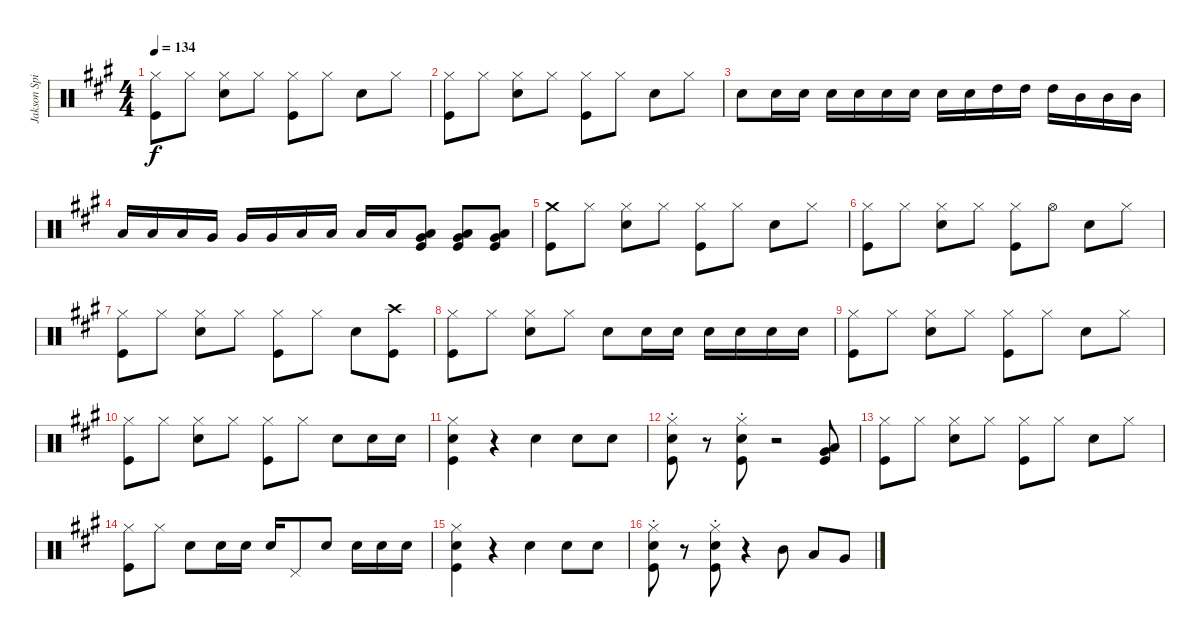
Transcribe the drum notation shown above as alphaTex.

\track ("Jakson Spires Drums" "Jakson Spi") {instrument percussion}
\staff {score}
\articulation defaults
\ts (4 4)
\tempo 134
\clef neutral
\ks a
("Hi-Hat (closed)" "Kick (hit)").8{dy f} "Hi-Hat (closed)".8 ("Hi-Hat (closed)" "Snare (hit) 2").8 "Hi-Hat (closed)".8 ("Hi-Hat (closed)" "Kick (hit)").8 "Hi-Hat (closed)".8 "Snare (hit) 2".8 "Hi-Hat (closed)".8 |
("Hi-Hat (closed)" "Kick (hit)").8 "Hi-Hat (closed)".8 ("Hi-Hat (closed)" "Snare (hit) 2").8 "Hi-Hat (closed)".8 ("Hi-Hat (closed)" "Kick (hit)").8 "Hi-Hat (closed)".8 "Snare (hit) 2".8 "Hi-Hat (closed)".8 |
"Snare (hit) 2".8 "Snare (hit) 2".16 "Snare (hit) 2".16 "Snare (hit) 2".16 "Snare (hit) 2".16 "Snare (hit) 2".16 "Snare (hit) 2".16 "Snare (hit) 2".16 "Snare (hit) 2".16 "High Tom (hit)".16 "High Tom (hit)".16 "High Tom (hit)".16 "Mid Tom (hit)".16 "Mid Tom (hit)".16 "Mid Tom (hit)".16 |
"Low Tom (hit)".16 "Low Tom (hit)".16 "Low Tom (hit)".16 "Very Low Tom (hit)".16 "Very Low Tom (hit)".16 "Very Low Tom (hit)".16 "Low Floor Tom (hit)".16 "Low Floor Tom (hit)".16 "Low Floor Tom (hit)".16 "Low Floor Tom (hit)".16 ("Low Tom (hit)" "Very Low Tom (hit)" "Kick (hit)").8 ("Low Tom (hit)" "Very Low Tom (hit)" "Kick (hit)").8 ("Low Tom (hit)" "Very Low Tom (hit)" "Kick (hit)").8 |
("Crash medium (hit)" "Kick (hit)").8 "Hi-Hat (closed)".8 ("Hi-Hat (closed)" "Snare (hit) 2").8 "Hi-Hat (closed)".8 ("Hi-Hat (closed)" "Kick (hit)").8 "Hi-Hat (closed)".8 "Snare (hit) 2".8 "Hi-Hat (closed)".8 |
("Hi-Hat (closed)" "Kick (hit)").8 "Hi-Hat (closed)".8 ("Hi-Hat (closed)" "Snare (hit) 2").8 "Hi-Hat (closed)".8 ("Hi-Hat (closed)" "Kick (hit)").8 "Hi-Hat (open)".8 "Snare (hit) 2".8 "Hi-Hat (closed)".8 |
("Hi-Hat (closed)" "Kick (hit)").8 "Hi-Hat (closed)".8 ("Hi-Hat (closed)" "Snare (hit) 2").8 "Hi-Hat (closed)".8 ("Hi-Hat (closed)" "Kick (hit)").8 "Hi-Hat (closed)".8 "Snare (hit) 2".8 ("Crash high (hit)" "Kick (hit)").8 |
("Hi-Hat (closed)" "Kick (hit)").8 "Hi-Hat (closed)".8 ("Hi-Hat (closed)" "Snare (hit) 2").8 "Hi-Hat (closed)".8 "Snare (hit) 2".8 "Snare (hit) 2".16 "Snare (hit) 2".16 "Snare (hit) 2".16 "Snare (hit) 2".16 "Snare (hit) 2".16 "Snare (hit) 2".16 |
("Hi-Hat (closed)" "Kick (hit)").8 "Hi-Hat (closed)".8 ("Hi-Hat (closed)" "Snare (hit) 2").8 "Hi-Hat (closed)".8 ("Hi-Hat (closed)" "Kick (hit)").8 "Hi-Hat (closed)".8 "Snare (hit) 2".8 "Hi-Hat (closed)".8 |
("Hi-Hat (closed)" "Kick (hit)").8 "Hi-Hat (closed)".8 ("Hi-Hat (closed)" "Snare (hit) 2").8 "Hi-Hat (closed)".8 ("Hi-Hat (closed)" "Kick (hit)").8 "Hi-Hat (closed)".8 "Snare (hit) 2".8 "Snare (hit) 2".16 "Snare (hit) 2".16 |
("Hi-Hat (closed)" "Snare (hit) 2" "Kick (hit)").4 r.4 "Snare (hit) 2".4 "Snare (hit) 2".8 "Snare (hit) 2".8 |
("Hi-Hat (closed)" "Snare (hit) 2" "Kick (hit)"{st}).8 r.8 ("Hi-Hat (closed)" "Snare (hit) 2" "Kick (hit)"{st}).8 r.2 ("Very Low Tom (hit)" "Low Floor Tom (hit)" "Kick (hit)").8 |
("Hi-Hat (closed)" "Kick (hit)").8 "Hi-Hat (closed)".8 ("Hi-Hat (closed)" "Snare (hit) 2").8 "Hi-Hat (closed)".8 ("Hi-Hat (closed)" "Kick (hit)").8 "Hi-Hat (closed)".8 "Snare (hit) 2".8 "Hi-Hat (closed)".8 |
("Hi-Hat (closed)" "Kick (hit)").8 "Hi-Hat (closed)".8 "Snare (hit) 2".8 "Snare (hit) 2".16 "Snare (hit) 2".16 "Snare (hit) 2".16 "Pedal Hi-Hat (hit)".8 "Snare (hit)".8 "Snare (hit) 2".16 "Snare (hit) 2".16 "Snare (hit) 2".16 |
("Hi-Hat (closed)" "Snare (hit) 2" "Kick (hit)").4 r.4 "Snare (hit) 2".4 "Snare (hit) 2".8 "Snare (hit) 2".8 |
("Hi-Hat (closed)" "Snare (hit) 2" "Kick (hit)"{st}).8 r.8 ("Hi-Hat (closed)" "Snare (hit) 2" "Kick (hit)"{st}).8 r.4 "Mid Tom (hit)".8 "Low Tom (hit)".8 "Very Low Tom (hit)".8
